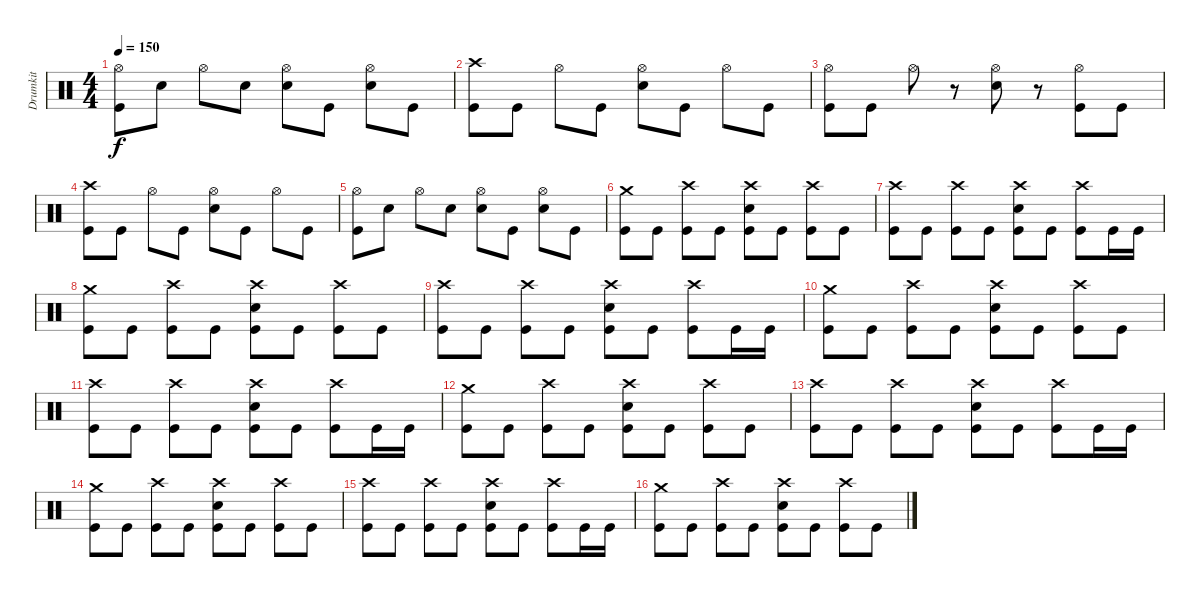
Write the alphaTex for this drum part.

\track ("Drumkit" "Drumkit") {instrument percussion}
\staff {score}
\articulation defaults
\ts (4 4)
\tempo 150
\clef neutral
\ks c
("Kick (hit)" "Hi-Hat (open)").8{dy f} "Snare (hit) 2".8 "Hi-Hat (open)".8 "Snare (hit) 2".8 ("Snare (hit) 2" "Hi-Hat (open)").8 "Kick (hit)".8 ("Snare (hit) 2" "Hi-Hat (open)").8 "Kick (hit)".8 |
("Kick (hit)" "Crash high (hit)").8 "Kick (hit)".8 "Hi-Hat (open)".8 "Kick (hit)".8 ("Snare (hit) 2" "Hi-Hat (open)").8 "Kick (hit)".8 "Hi-Hat (open)".8 "Kick (hit)".8 |
("Kick (hit)" "Hi-Hat (open)").8 "Kick (hit)".8 "Hi-Hat (open)".8 r.8 ("Snare (hit) 2" "Hi-Hat (open)").8 r.8 ("Kick (hit)" "Hi-Hat (open)").8 "Kick (hit)".8 |
("Kick (hit)" "Crash high (hit)").8 "Kick (hit)".8 "Hi-Hat (open)".8 "Kick (hit)".8 ("Snare (hit) 2" "Hi-Hat (open)").8 "Kick (hit)".8 "Hi-Hat (open)".8 "Kick (hit)".8 |
("Kick (hit)" "Hi-Hat (open)").8 "Snare (hit) 2".8 "Hi-Hat (open)".8 "Snare (hit) 2".8 ("Snare (hit) 2" "Hi-Hat (open)").8 "Kick (hit)".8 ("Snare (hit) 2" "Hi-Hat (open)").8 "Kick (hit)".8 |
("Kick (hit)" "Crash medium (hit)").8 "Kick (hit)".8 ("Kick (hit)" "Crash high (hit)").8 "Kick (hit)".8 ("Kick (hit)" "Snare (hit) 2" "Crash high (hit)").8 "Kick (hit)".8 ("Kick (hit)" "Crash high (hit)").8 "Kick (hit)".8 |
("Kick (hit)" "Crash high (hit)").8 "Kick (hit)".8 ("Kick (hit)" "Crash high (hit)").8 "Kick (hit)".8 ("Kick (hit)" "Snare (hit) 2" "Crash high (hit)").8 "Kick (hit)".8 ("Kick (hit)" "Crash high (hit)").8 "Kick (hit)".16 "Kick (hit)".16 |
("Kick (hit)" "Crash medium (hit)").8 "Kick (hit)".8 ("Kick (hit)" "Crash high (hit)").8 "Kick (hit)".8 ("Kick (hit)" "Snare (hit) 2" "Crash high (hit)").8 "Kick (hit)".8 ("Kick (hit)" "Crash high (hit)").8 "Kick (hit)".8 |
("Kick (hit)" "Crash high (hit)").8 "Kick (hit)".8 ("Kick (hit)" "Crash high (hit)").8 "Kick (hit)".8 ("Kick (hit)" "Snare (hit) 2" "Crash high (hit)").8 "Kick (hit)".8 ("Kick (hit)" "Crash high (hit)").8 "Kick (hit)".16 "Kick (hit)".16 |
("Kick (hit)" "Crash medium (hit)").8 "Kick (hit)".8 ("Kick (hit)" "Crash high (hit)").8 "Kick (hit)".8 ("Kick (hit)" "Snare (hit) 2" "Crash high (hit)").8 "Kick (hit)".8 ("Kick (hit)" "Crash high (hit)").8 "Kick (hit)".8 |
("Kick (hit)" "Crash high (hit)").8 "Kick (hit)".8 ("Kick (hit)" "Crash high (hit)").8 "Kick (hit)".8 ("Kick (hit)" "Snare (hit) 2" "Crash high (hit)").8 "Kick (hit)".8 ("Kick (hit)" "Crash high (hit)").8 "Kick (hit)".16 "Kick (hit)".16 |
("Kick (hit)" "Crash medium (hit)").8 "Kick (hit)".8 ("Kick (hit)" "Crash high (hit)").8 "Kick (hit)".8 ("Kick (hit)" "Snare (hit) 2" "Crash high (hit)").8 "Kick (hit)".8 ("Kick (hit)" "Crash high (hit)").8 "Kick (hit)".8 |
("Kick (hit)" "Crash high (hit)").8 "Kick (hit)".8 ("Kick (hit)" "Crash high (hit)").8 "Kick (hit)".8 ("Kick (hit)" "Snare (hit) 2" "Crash high (hit)").8 "Kick (hit)".8 ("Kick (hit)" "Crash high (hit)").8 "Kick (hit)".16 "Kick (hit)".16 |
("Kick (hit)" "Crash medium (hit)").8 "Kick (hit)".8 ("Kick (hit)" "Crash high (hit)").8 "Kick (hit)".8 ("Kick (hit)" "Snare (hit) 2" "Crash high (hit)").8 "Kick (hit)".8 ("Kick (hit)" "Crash high (hit)").8 "Kick (hit)".8 |
("Kick (hit)" "Crash high (hit)").8 "Kick (hit)".8 ("Kick (hit)" "Crash high (hit)").8 "Kick (hit)".8 ("Kick (hit)" "Snare (hit) 2" "Crash high (hit)").8 "Kick (hit)".8 ("Kick (hit)" "Crash high (hit)").8 "Kick (hit)".16 "Kick (hit)".16 |
("Kick (hit)" "Crash medium (hit)").8 "Kick (hit)".8 ("Kick (hit)" "Crash high (hit)").8 "Kick (hit)".8 ("Kick (hit)" "Snare (hit) 2" "Crash high (hit)").8 "Kick (hit)".8 ("Kick (hit)" "Crash high (hit)").8 "Kick (hit)".8
